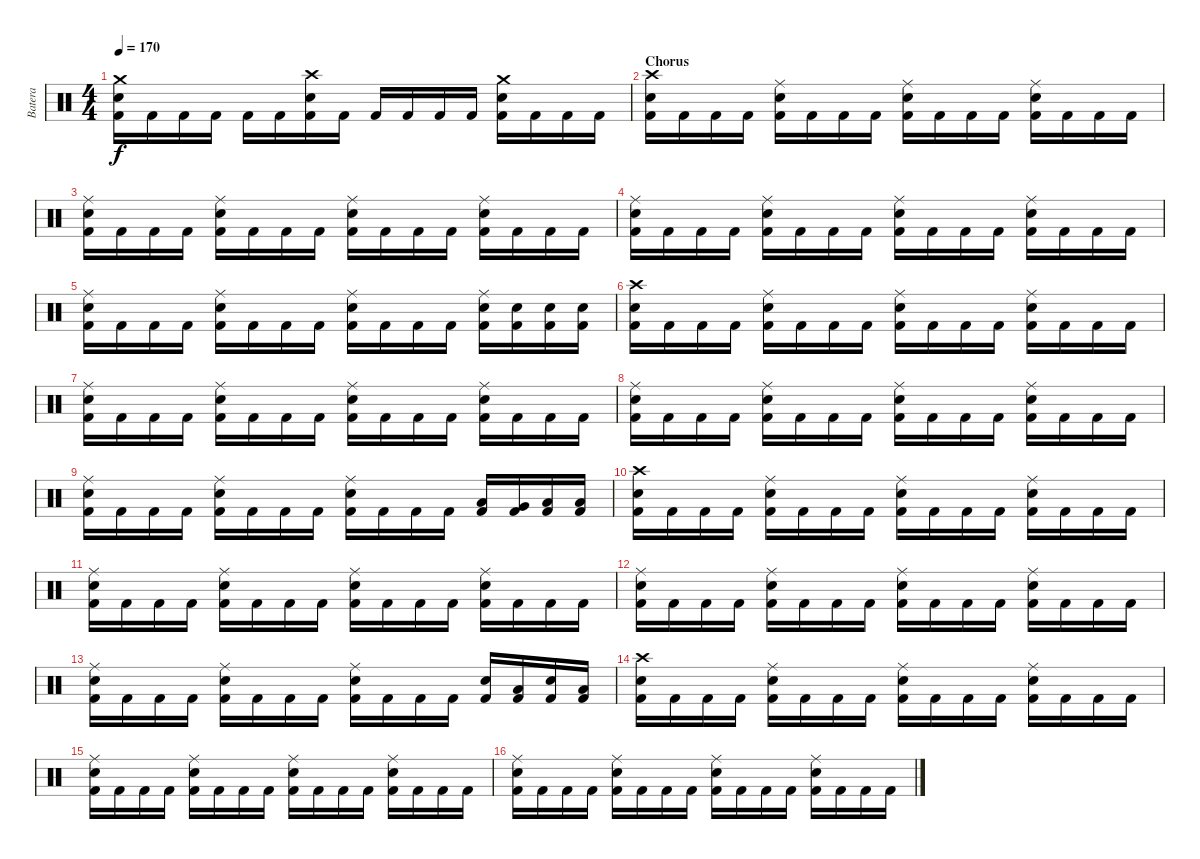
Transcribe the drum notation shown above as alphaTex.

\track ("Batera" "Batera") {instrument percussion}
\staff {score}
\articulation defaults
\ts (4 4)
\tempo 170
\clef neutral
\ks c
("Crash medium (hit)" "Electric Snare (hit)" "Kick (hit) 2").16{dy f} "Kick (hit) 2".16 "Kick (hit) 2".16 "Kick (hit) 2".16 "Kick (hit) 2".16 "Kick (hit) 2".16 ("Crash high (hit)" "Electric Snare (hit)" "Kick (hit) 2").16 "Kick (hit) 2".16 "Kick (hit) 2".16 "Kick (hit) 2".16 "Kick (hit) 2".16 "Kick (hit) 2".16 ("Crash medium (hit)" "Electric Snare (hit)" "Kick (hit) 2").16 "Kick (hit) 2".16 "Kick (hit) 2".16 "Kick (hit) 2".16 |
\section ("" "Chorus")
("Crash high (hit)" "Electric Snare (hit)" "Kick (hit) 2").16 "Kick (hit) 2".16 "Kick (hit) 2".16 "Kick (hit) 2".16 ("Ride (middle)" "Electric Snare (hit)" "Kick (hit) 2").16 "Kick (hit) 2".16 "Kick (hit) 2".16 "Kick (hit) 2".16 ("Ride (middle)" "Electric Snare (hit)" "Kick (hit) 2").16 "Kick (hit) 2".16 "Kick (hit) 2".16 "Kick (hit) 2".16 ("Ride (middle)" "Electric Snare (hit)" "Kick (hit) 2").16 "Kick (hit) 2".16 "Kick (hit) 2".16 "Kick (hit) 2".16 |
("Ride (middle)" "Electric Snare (hit)" "Kick (hit) 2").16 "Kick (hit) 2".16 "Kick (hit) 2".16 "Kick (hit) 2".16 ("Ride (middle)" "Electric Snare (hit)" "Kick (hit) 2").16 "Kick (hit) 2".16 "Kick (hit) 2".16 "Kick (hit) 2".16 ("Ride (middle)" "Electric Snare (hit)" "Kick (hit) 2").16 "Kick (hit) 2".16 "Kick (hit) 2".16 "Kick (hit) 2".16 ("Ride (middle)" "Electric Snare (hit)" "Kick (hit) 2").16 "Kick (hit) 2".16 "Kick (hit) 2".16 "Kick (hit) 2".16 |
("Ride (middle)" "Electric Snare (hit)" "Kick (hit) 2").16 "Kick (hit) 2".16 "Kick (hit) 2".16 "Kick (hit) 2".16 ("Ride (middle)" "Electric Snare (hit)" "Kick (hit) 2").16 "Kick (hit) 2".16 "Kick (hit) 2".16 "Kick (hit) 2".16 ("Ride (middle)" "Electric Snare (hit)" "Kick (hit) 2").16 "Kick (hit) 2".16 "Kick (hit) 2".16 "Kick (hit) 2".16 ("Ride (middle)" "Electric Snare (hit)" "Kick (hit) 2").16 "Kick (hit) 2".16 "Kick (hit) 2".16 "Kick (hit) 2".16 |
("Ride (middle)" "Electric Snare (hit)" "Kick (hit) 2").16 "Kick (hit) 2".16 "Kick (hit) 2".16 "Kick (hit) 2".16 ("Ride (middle)" "Electric Snare (hit)" "Kick (hit) 2").16 "Kick (hit) 2".16 "Kick (hit) 2".16 "Kick (hit) 2".16 ("Ride (middle)" "Electric Snare (hit)" "Kick (hit) 2").16 "Kick (hit) 2".16 "Kick (hit) 2".16 "Kick (hit) 2".16 ("Ride (middle)" "Electric Snare (hit)" "Kick (hit) 2").16 ("Electric Snare (hit)" "Kick (hit) 2").16 ("Electric Snare (hit)" "Kick (hit) 2").16 ("Electric Snare (hit)" "Kick (hit) 2").16 |
("Crash high (hit)" "Electric Snare (hit)" "Kick (hit) 2").16 "Kick (hit) 2".16 "Kick (hit) 2".16 "Kick (hit) 2".16 ("Ride (middle)" "Electric Snare (hit)" "Kick (hit) 2").16 "Kick (hit) 2".16 "Kick (hit) 2".16 "Kick (hit) 2".16 ("Ride (middle)" "Electric Snare (hit)" "Kick (hit) 2").16 "Kick (hit) 2".16 "Kick (hit) 2".16 "Kick (hit) 2".16 ("Ride (middle)" "Electric Snare (hit)" "Kick (hit) 2").16 "Kick (hit) 2".16 "Kick (hit) 2".16 "Kick (hit) 2".16 |
("Ride (middle)" "Electric Snare (hit)" "Kick (hit) 2").16 "Kick (hit) 2".16 "Kick (hit) 2".16 "Kick (hit) 2".16 ("Ride (middle)" "Electric Snare (hit)" "Kick (hit) 2").16 "Kick (hit) 2".16 "Kick (hit) 2".16 "Kick (hit) 2".16 ("Ride (middle)" "Electric Snare (hit)" "Kick (hit) 2").16 "Kick (hit) 2".16 "Kick (hit) 2".16 "Kick (hit) 2".16 ("Ride (middle)" "Electric Snare (hit)" "Kick (hit) 2").16 "Kick (hit) 2".16 "Kick (hit) 2".16 "Kick (hit) 2".16 |
("Ride (middle)" "Electric Snare (hit)" "Kick (hit) 2").16 "Kick (hit) 2".16 "Kick (hit) 2".16 "Kick (hit) 2".16 ("Ride (middle)" "Electric Snare (hit)" "Kick (hit) 2").16 "Kick (hit) 2".16 "Kick (hit) 2".16 "Kick (hit) 2".16 ("Ride (middle)" "Electric Snare (hit)" "Kick (hit) 2").16 "Kick (hit) 2".16 "Kick (hit) 2".16 "Kick (hit) 2".16 ("Ride (middle)" "Electric Snare (hit)" "Kick (hit) 2").16 "Kick (hit) 2".16 "Kick (hit) 2".16 "Kick (hit) 2".16 |
("Ride (middle)" "Electric Snare (hit)" "Kick (hit) 2").16 "Kick (hit) 2".16 "Kick (hit) 2".16 "Kick (hit) 2".16 ("Ride (middle)" "Electric Snare (hit)" "Kick (hit) 2").16 "Kick (hit) 2".16 "Kick (hit) 2".16 "Kick (hit) 2".16 ("Ride (middle)" "Electric Snare (hit)" "Kick (hit) 2").16 "Kick (hit) 2".16 "Kick (hit) 2".16 "Kick (hit) 2".16 ("Low Floor Tom (hit)" "Kick (hit) 2").16 ("Very Low Tom (hit)" "Kick (hit) 2").16 ("Low Floor Tom (hit)" "Kick (hit) 2").16 ("Low Tom (hit)" "Kick (hit) 2").16 |
("Crash high (hit)" "Electric Snare (hit)" "Kick (hit) 2").16 "Kick (hit) 2".16 "Kick (hit) 2".16 "Kick (hit) 2".16 ("Ride (middle)" "Electric Snare (hit)" "Kick (hit) 2").16 "Kick (hit) 2".16 "Kick (hit) 2".16 "Kick (hit) 2".16 ("Ride (middle)" "Electric Snare (hit)" "Kick (hit) 2").16 "Kick (hit) 2".16 "Kick (hit) 2".16 "Kick (hit) 2".16 ("Ride (middle)" "Electric Snare (hit)" "Kick (hit) 2").16 "Kick (hit) 2".16 "Kick (hit) 2".16 "Kick (hit) 2".16 |
("Ride (middle)" "Electric Snare (hit)" "Kick (hit) 2").16 "Kick (hit) 2".16 "Kick (hit) 2".16 "Kick (hit) 2".16 ("Ride (middle)" "Electric Snare (hit)" "Kick (hit) 2").16 "Kick (hit) 2".16 "Kick (hit) 2".16 "Kick (hit) 2".16 ("Ride (middle)" "Electric Snare (hit)" "Kick (hit) 2").16 "Kick (hit) 2".16 "Kick (hit) 2".16 "Kick (hit) 2".16 ("Ride (middle)" "Electric Snare (hit)" "Kick (hit) 2").16 "Kick (hit) 2".16 "Kick (hit) 2".16 "Kick (hit) 2".16 |
("Ride (middle)" "Electric Snare (hit)" "Kick (hit) 2").16 "Kick (hit) 2".16 "Kick (hit) 2".16 "Kick (hit) 2".16 ("Ride (middle)" "Electric Snare (hit)" "Kick (hit) 2").16 "Kick (hit) 2".16 "Kick (hit) 2".16 "Kick (hit) 2".16 ("Ride (middle)" "Electric Snare (hit)" "Kick (hit) 2").16 "Kick (hit) 2".16 "Kick (hit) 2".16 "Kick (hit) 2".16 ("Ride (middle)" "Electric Snare (hit)" "Kick (hit) 2").16 "Kick (hit) 2".16 "Kick (hit) 2".16 "Kick (hit) 2".16 |
("Ride (middle)" "Electric Snare (hit)" "Kick (hit) 2").16 "Kick (hit) 2".16 "Kick (hit) 2".16 "Kick (hit) 2".16 ("Ride (middle)" "Electric Snare (hit)" "Kick (hit) 2").16 "Kick (hit) 2".16 "Kick (hit) 2".16 "Kick (hit) 2".16 ("Ride (middle)" "Electric Snare (hit)" "Kick (hit) 2").16 "Kick (hit) 2".16 "Kick (hit) 2".16 "Kick (hit) 2".16 ("Electric Snare (hit)" "Kick (hit) 2").16 ("Low Floor Tom (hit)" "Kick (hit) 2").16 ("Electric Snare (hit)" "Kick (hit) 2").16 ("Low Floor Tom (hit)" "Kick (hit) 2").16 |
("Crash high (hit)" "Electric Snare (hit)" "Kick (hit) 2").16 "Kick (hit) 2".16 "Kick (hit) 2".16 "Kick (hit) 2".16 ("Ride (middle)" "Electric Snare (hit)" "Kick (hit) 2").16 "Kick (hit) 2".16 "Kick (hit) 2".16 "Kick (hit) 2".16 ("Ride (middle)" "Electric Snare (hit)" "Kick (hit) 2").16 "Kick (hit) 2".16 "Kick (hit) 2".16 "Kick (hit) 2".16 ("Ride (middle)" "Electric Snare (hit)" "Kick (hit) 2").16 "Kick (hit) 2".16 "Kick (hit) 2".16 "Kick (hit) 2".16 |
("Ride (middle)" "Electric Snare (hit)" "Kick (hit) 2").16 "Kick (hit) 2".16 "Kick (hit) 2".16 "Kick (hit) 2".16 ("Ride (middle)" "Electric Snare (hit)" "Kick (hit) 2").16 "Kick (hit) 2".16 "Kick (hit) 2".16 "Kick (hit) 2".16 ("Ride (middle)" "Electric Snare (hit)" "Kick (hit) 2").16 "Kick (hit) 2".16 "Kick (hit) 2".16 "Kick (hit) 2".16 ("Ride (middle)" "Electric Snare (hit)" "Kick (hit) 2").16 "Kick (hit) 2".16 "Kick (hit) 2".16 "Kick (hit) 2".16 |
("Ride (middle)" "Electric Snare (hit)" "Kick (hit) 2").16 "Kick (hit) 2".16 "Kick (hit) 2".16 "Kick (hit) 2".16 ("Ride (middle)" "Electric Snare (hit)" "Kick (hit) 2").16 "Kick (hit) 2".16 "Kick (hit) 2".16 "Kick (hit) 2".16 ("Ride (middle)" "Electric Snare (hit)" "Kick (hit) 2").16 "Kick (hit) 2".16 "Kick (hit) 2".16 "Kick (hit) 2".16 ("Ride (middle)" "Electric Snare (hit)" "Kick (hit) 2").16 "Kick (hit) 2".16 "Kick (hit) 2".16 "Kick (hit) 2".16
